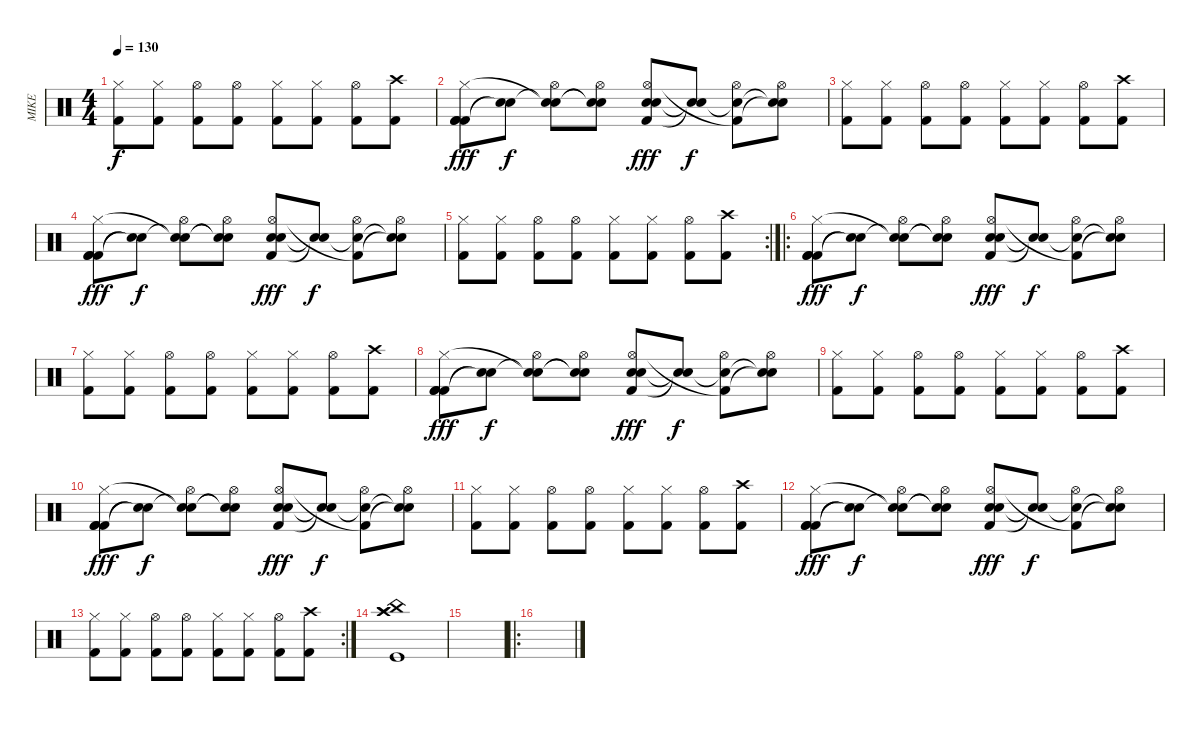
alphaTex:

\track ("MIKE" "MIKE") {instrument percussion}
\staff {score}
\articulation defaults
\ts (4 4)
\tempo 130
\clef neutral
\ks c
("Hi-Hat (closed)" "Kick (hit) 2").8{dy f} ("Hi-Hat (closed)" "Kick (hit) 2").8 ("Hi-Hat (open)" "Kick (hit) 2").8 ("Hi-Hat (open)" "Kick (hit) 2").8 ("Hi-Hat (closed)" "Kick (hit) 2").8 ("Hi-Hat (closed)" "Kick (hit) 2").8 ("Hi-Hat (open)" "Kick (hit) 2").8 ("Crash high (hit)" "Kick (hit) 2").8 |
("Kick (hit) 2" "Kick (hit) 2" "Hi-Hat (closed)" "Kick (hit) 2").8{dy fff} ("Snare (hit)"{t} "Snare (hit)"{t}).8{dy f} ("Hi-Hat (open)" "Snare (hit)"{t} "Snare (hit)"{t}).8 ("Hi-Hat (open)" "Snare (hit)"{t} "Electric Snare (hit)"{t}).8 ("Kick (hit) 2" "Electric Snare (hit)" "Hi-Hat (open)" "Electric Snare (hit)").8{dy fff} ("Snare (hit)"{t} "Snare (hit)"{t}).8{dy f} ("Hi-Hat (open)" "Snare (hit)"{t} "Kick (hit) 2"{t}).8 ("Hi-Hat (open)" "Snare (hit)"{t} "Snare (hit)"{t}).8 |
("Hi-Hat (closed)" "Kick (hit) 2").8 ("Hi-Hat (closed)" "Kick (hit) 2").8 ("Hi-Hat (open)" "Kick (hit) 2").8 ("Hi-Hat (open)" "Kick (hit) 2").8 ("Hi-Hat (closed)" "Kick (hit) 2").8 ("Hi-Hat (closed)" "Kick (hit) 2").8 ("Hi-Hat (open)" "Kick (hit) 2").8 ("Crash high (hit)" "Kick (hit) 2").8 |
("Kick (hit) 2" "Kick (hit) 2" "Hi-Hat (closed)" "Kick (hit) 2").8{dy fff} ("Snare (hit)"{t} "Snare (hit)"{t}).8{dy f} ("Hi-Hat (open)" "Snare (hit)"{t} "Snare (hit)"{t}).8 ("Hi-Hat (open)" "Snare (hit)"{t} "Electric Snare (hit)"{t}).8 ("Kick (hit) 2" "Electric Snare (hit)" "Hi-Hat (open)" "Electric Snare (hit)").8{dy fff} ("Snare (hit)"{t} "Snare (hit)"{t}).8{dy f} ("Hi-Hat (open)" "Snare (hit)"{t} "Kick (hit) 2"{t}).8 ("Hi-Hat (open)" "Snare (hit)"{t} "Snare (hit)"{t}).8 |
\rc 2
("Hi-Hat (closed)" "Kick (hit) 2").8 ("Hi-Hat (closed)" "Kick (hit) 2").8 ("Hi-Hat (open)" "Kick (hit) 2").8 ("Hi-Hat (open)" "Kick (hit) 2").8 ("Hi-Hat (closed)" "Kick (hit) 2").8 ("Hi-Hat (closed)" "Kick (hit) 2").8 ("Hi-Hat (open)" "Kick (hit) 2").8 ("Crash high (hit)" "Kick (hit) 2").8 |
\ro
("Kick (hit) 2" "Kick (hit) 2" "Hi-Hat (closed)" "Kick (hit) 2").8{dy fff} ("Snare (hit)"{t} "Snare (hit)"{t}).8{dy f} ("Hi-Hat (open)" "Snare (hit)"{t} "Snare (hit)"{t}).8 ("Hi-Hat (open)" "Snare (hit)"{t} "Electric Snare (hit)"{t}).8 ("Kick (hit) 2" "Electric Snare (hit)" "Hi-Hat (open)" "Electric Snare (hit)").8{dy fff} ("Snare (hit)"{t} "Snare (hit)"{t}).8{dy f} ("Hi-Hat (open)" "Snare (hit)"{t} "Kick (hit) 2"{t}).8 ("Hi-Hat (open)" "Snare (hit)"{t} "Snare (hit)"{t}).8 |
("Hi-Hat (closed)" "Kick (hit) 2").8 ("Hi-Hat (closed)" "Kick (hit) 2").8 ("Hi-Hat (open)" "Kick (hit) 2").8 ("Hi-Hat (open)" "Kick (hit) 2").8 ("Hi-Hat (closed)" "Kick (hit) 2").8 ("Hi-Hat (closed)" "Kick (hit) 2").8 ("Hi-Hat (open)" "Kick (hit) 2").8 ("Crash high (hit)" "Kick (hit) 2").8 |
("Kick (hit) 2" "Kick (hit) 2" "Hi-Hat (closed)" "Kick (hit) 2").8{dy fff} ("Snare (hit)"{t} "Snare (hit)"{t}).8{dy f} ("Hi-Hat (open)" "Snare (hit)"{t} "Snare (hit)"{t}).8 ("Hi-Hat (open)" "Snare (hit)"{t} "Electric Snare (hit)"{t}).8 ("Kick (hit) 2" "Electric Snare (hit)" "Hi-Hat (open)" "Electric Snare (hit)").8{dy fff} ("Snare (hit)"{t} "Snare (hit)"{t}).8{dy f} ("Hi-Hat (open)" "Snare (hit)"{t} "Kick (hit) 2"{t}).8 ("Hi-Hat (open)" "Snare (hit)"{t} "Snare (hit)"{t}).8 |
("Hi-Hat (closed)" "Kick (hit) 2").8 ("Hi-Hat (closed)" "Kick (hit) 2").8 ("Hi-Hat (open)" "Kick (hit) 2").8 ("Hi-Hat (open)" "Kick (hit) 2").8 ("Hi-Hat (closed)" "Kick (hit) 2").8 ("Hi-Hat (closed)" "Kick (hit) 2").8 ("Hi-Hat (open)" "Kick (hit) 2").8 ("Crash high (hit)" "Kick (hit) 2").8 |
("Kick (hit) 2" "Kick (hit) 2" "Hi-Hat (closed)" "Kick (hit) 2").8{dy fff} ("Snare (hit)"{t} "Snare (hit)"{t}).8{dy f} ("Hi-Hat (open)" "Snare (hit)"{t} "Snare (hit)"{t}).8 ("Hi-Hat (open)" "Snare (hit)"{t} "Electric Snare (hit)"{t}).8 ("Kick (hit) 2" "Electric Snare (hit)" "Hi-Hat (open)" "Electric Snare (hit)").8{dy fff} ("Snare (hit)"{t} "Snare (hit)"{t}).8{dy f} ("Hi-Hat (open)" "Snare (hit)"{t} "Kick (hit) 2"{t}).8 ("Hi-Hat (open)" "Snare (hit)"{t} "Snare (hit)"{t}).8 |
("Hi-Hat (closed)" "Kick (hit) 2").8 ("Hi-Hat (closed)" "Kick (hit) 2").8 ("Hi-Hat (open)" "Kick (hit) 2").8 ("Hi-Hat (open)" "Kick (hit) 2").8 ("Hi-Hat (closed)" "Kick (hit) 2").8 ("Hi-Hat (closed)" "Kick (hit) 2").8 ("Hi-Hat (open)" "Kick (hit) 2").8 ("Crash high (hit)" "Kick (hit) 2").8 |
("Kick (hit) 2" "Kick (hit) 2" "Hi-Hat (closed)" "Kick (hit) 2").8{dy fff} ("Snare (hit)"{t} "Snare (hit)"{t}).8{dy f} ("Hi-Hat (open)" "Snare (hit)"{t} "Snare (hit)"{t}).8 ("Hi-Hat (open)" "Snare (hit)"{t} "Electric Snare (hit)"{t}).8 ("Kick (hit) 2" "Electric Snare (hit)" "Hi-Hat (open)" "Electric Snare (hit)").8{dy fff} ("Snare (hit)"{t} "Snare (hit)"{t}).8{dy f} ("Hi-Hat (open)" "Snare (hit)"{t} "Kick (hit) 2"{t}).8 ("Hi-Hat (open)" "Snare (hit)"{t} "Snare (hit)"{t}).8 |
\rc 2
("Hi-Hat (closed)" "Kick (hit) 2").8 ("Hi-Hat (closed)" "Kick (hit) 2").8 ("Hi-Hat (open)" "Kick (hit) 2").8 ("Hi-Hat (open)" "Kick (hit) 2").8 ("Hi-Hat (closed)" "Kick (hit) 2").8 ("Hi-Hat (closed)" "Kick (hit) 2").8 ("Hi-Hat (open)" "Kick (hit) 2").8 ("Crash high (hit)" "Kick (hit) 2").8 |
("Kick (hit)" "China (hit)" "Crash high (hit)" "Crash high (hit)").1 |
|
\ro
